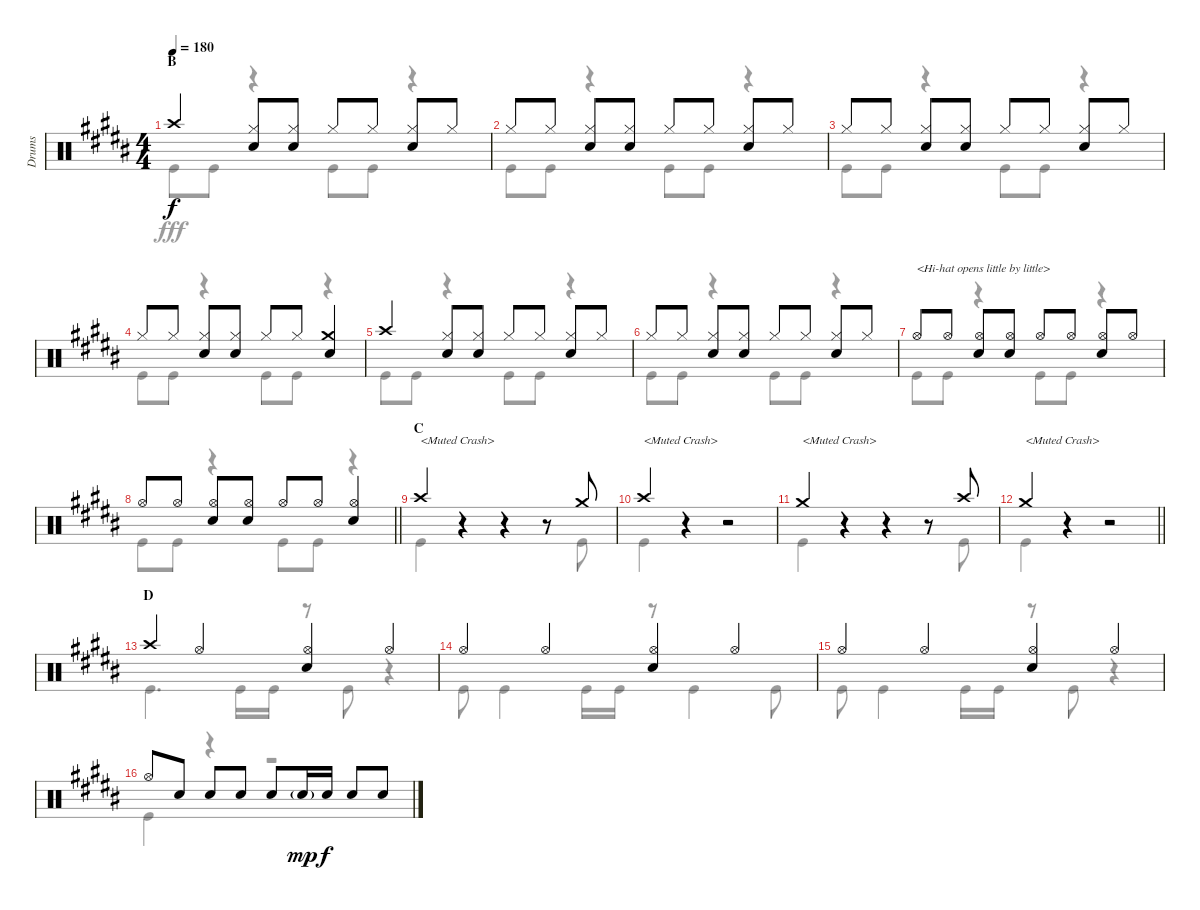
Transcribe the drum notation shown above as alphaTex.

\track ("Drums" "Drums") {instrument percussion}
\staff {score}
\articulation defaults
\voice
\ts (4 4)
\section ("" "B")
\tempo 180
\clef neutral
\ks b "Crash high (hit)".4{dy f}
("Hi-Hat (closed)" "Snare (hit) 2").8 ("Hi-Hat (closed)" "Snare (hit) 2").8 "Hi-Hat (closed)".8 "Hi-Hat (closed)".8 ("Hi-Hat (closed)" "Snare (hit) 2").8 "Hi-Hat (closed)".8 |
"Hi-Hat (closed)".8 "Hi-Hat (closed)".8 ("Hi-Hat (closed)" "Snare (hit) 2").8 ("Hi-Hat (closed)" "Snare (hit) 2").8 "Hi-Hat (closed)".8 "Hi-Hat (closed)".8 ("Hi-Hat (closed)" "Snare (hit) 2").8 "Hi-Hat (closed)".8 |
"Hi-Hat (closed)".8 "Hi-Hat (closed)".8 ("Hi-Hat (closed)" "Snare (hit) 2").8 ("Hi-Hat (closed)" "Snare (hit) 2").8 "Hi-Hat (closed)".8 "Hi-Hat (closed)".8 ("Hi-Hat (closed)" "Snare (hit) 2").8 "Hi-Hat (closed)".8 |
"Hi-Hat (closed)".8 "Hi-Hat (closed)".8 ("Hi-Hat (closed)" "Snare (hit) 2").8 ("Hi-Hat (closed)" "Snare (hit) 2").8 "Hi-Hat (closed)".8 "Hi-Hat (closed)".8 ("Crash medium (hit)" "Snare (hit) 2").4 |
"Crash high (hit)".4 ("Hi-Hat (closed)" "Snare (hit) 2").8 ("Hi-Hat (closed)" "Snare (hit) 2").8 "Hi-Hat (closed)".8 "Hi-Hat (closed)".8 ("Hi-Hat (closed)" "Snare (hit) 2").8 "Hi-Hat (closed)".8 |
"Hi-Hat (closed)".8 "Hi-Hat (closed)".8 ("Hi-Hat (closed)" "Snare (hit) 2").8 ("Hi-Hat (closed)" "Snare (hit) 2").8 "Hi-Hat (closed)".8 "Hi-Hat (closed)".8 ("Hi-Hat (closed)" "Snare (hit) 2").8 "Hi-Hat (closed)".8 |
"Hi-Hat (open)".8{txt "<Hi-hat opens little by little>"} "Hi-Hat (open)".8 ("Hi-Hat (open)" "Snare (hit) 2").8 ("Hi-Hat (open)" "Snare (hit) 2").8 "Hi-Hat (open)".8 "Hi-Hat (open)".8 ("Hi-Hat (open)" "Snare (hit) 2").8 "Hi-Hat (open)".8 |
\barLineRight lightlight "Hi-Hat (open)".8 "Hi-Hat (open)".8
("Hi-Hat (open)" "Snare (hit) 2").8 ("Hi-Hat (open)" "Snare (hit) 2").8 "Hi-Hat (open)".8 "Hi-Hat (open)".8 ("Hi-Hat (open)" "Snare (hit) 2").4 |
\section ("" "C")
"Crash high (hit)".4{txt "<Muted Crash>"} r.4 r.4 r.8 "Crash medium (hit)".8 |
"Crash high (hit)".4{txt "<Muted Crash>"} r.4 r.2 |
"Crash medium (hit)".4{txt "<Muted Crash>"} r.4 r.4 r.8 "Crash high (hit)".8 |
\barLineRight lightlight "Crash medium (hit)".4{txt "<Muted Crash>"}
r.4 r.2 |
\section ("" "D")
"Crash high (hit)".4 "Hi-Hat (open)".4 ("Hi-Hat (open)" "Snare (hit) 2").4 "Hi-Hat (open)".4 |
"Hi-Hat (open)".4 "Hi-Hat (open)".4 ("Hi-Hat (open)" "Snare (hit) 2").4 "Hi-Hat (open)".4 |
"Hi-Hat (open)".4 "Hi-Hat (open)".4 ("Hi-Hat (open)" "Snare (hit) 2").4 "Hi-Hat (open)".4 |
"Hi-Hat (open)".8 "Snare (hit) 2".8 "Snare (hit) 2".8 "Snare (hit) 2".8 "Snare (hit) 2".8 "Snare (hit) 2"{g}.16{dy mp} "Snare (hit) 2".16{dy f} "Snare (hit) 2".8 "Snare (hit) 2".8
\voice
\clef neutral
\ottava regular
\simile none
\ks b "Kick (hit)".8{dy fff} "Kick (hit)".8
r.4 "Kick (hit)".8 "Kick (hit)".8 r.4 |
"Kick (hit)".8 "Kick (hit)".8 r.4 "Kick (hit)".8 "Kick (hit)".8 r.4 |
"Kick (hit)".8 "Kick (hit)".8 r.4 "Kick (hit)".8 "Kick (hit)".8 r.4 |
"Kick (hit)".8 "Kick (hit)".8 r.4 "Kick (hit)".8 "Kick (hit)".8 r.4 |
"Kick (hit)".8 "Kick (hit)".8 r.4 "Kick (hit)".8 "Kick (hit)".8 r.4 |
"Kick (hit)".8 "Kick (hit)".8 r.4 "Kick (hit)".8 "Kick (hit)".8 r.4 |
"Kick (hit)".8 "Kick (hit)".8 r.4 "Kick (hit)".8 "Kick (hit)".8 r.4 |
\barLineRight lightlight "Kick (hit)".8 "Kick (hit)".8
r.4 "Kick (hit)".8 "Kick (hit)".8 r.4 |
"Kick (hit)".4 r.4 r.4 r.8 "Kick (hit)".8 |
"Kick (hit)".4 r.4 r.2 |
"Kick (hit)".4 r.4 r.4 r.8 "Kick (hit)".8 |
\barLineRight lightlight "Kick (hit)".4
r.4 r.2 |
"Kick (hit)".4{d} "Kick (hit)".16 "Kick (hit)".16 r.8 "Kick (hit)".8 r.4 |
"Kick (hit)".8 "Kick (hit)".4 "Kick (hit)".16 "Kick (hit)".16 r.8 "Kick (hit)".4 "Kick (hit)".8 |
"Kick (hit)".8 "Kick (hit)".4 "Kick (hit)".16 "Kick (hit)".16 r.8 "Kick (hit)".8 r.4 |
"Kick (hit)".4 r.4 r.2
